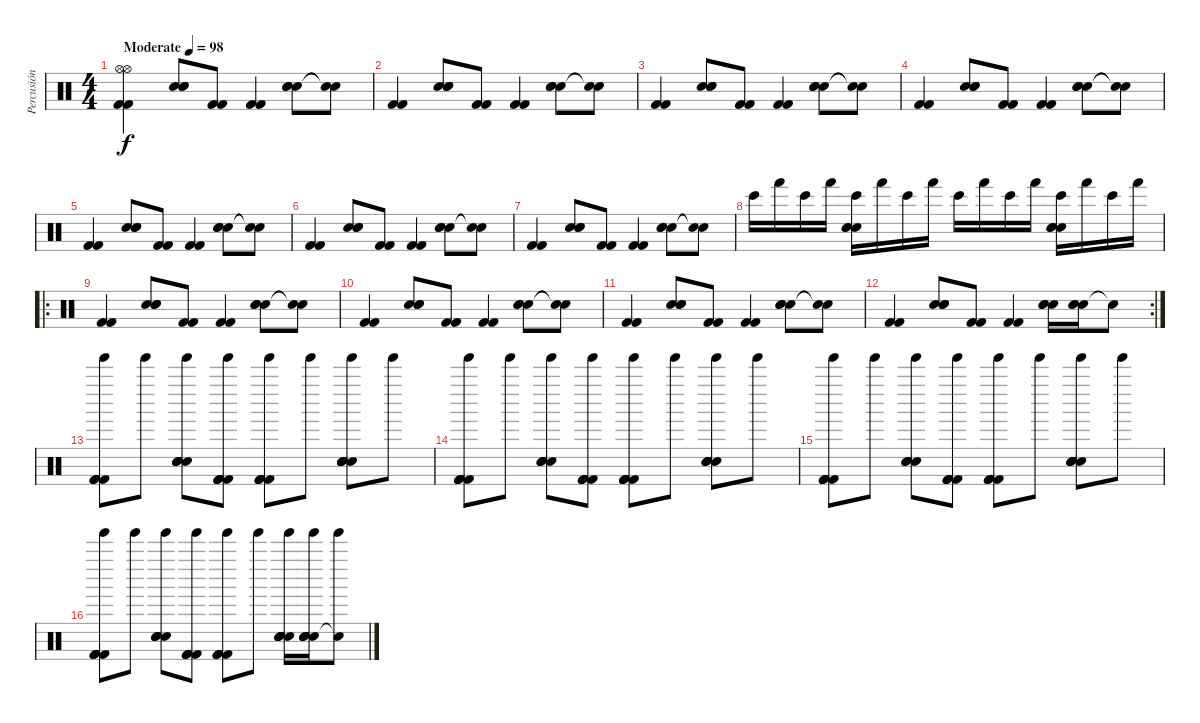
\track ("Percusión" "Percusión") {instrument percussion}
\staff {score}
\articulation defaults
\ts (4 4)
\tempo (98 "Moderate")
\clef neutral
\ks c
("Hi-Hat (open)" "Hi-Hat (open)" "Kick (hit) 2" "Kick (hit) 2").4{dy f} ("Electric Snare (hit)" "Electric Snare (hit)" "Electric Snare (hit)").8 ("Kick (hit) 2" "Kick (hit) 2").8 ("Kick (hit) 2" "Kick (hit) 2").4 ("Electric Snare (hit)" "Electric Snare (hit)" "Electric Snare (hit)").8 ("Snare (hit)"{t} "Snare (hit)"{t}).8 |
("Kick (hit) 2" "Kick (hit) 2").4 ("Electric Snare (hit)" "Electric Snare (hit)" "Electric Snare (hit)").8 ("Kick (hit) 2" "Kick (hit) 2").8 ("Kick (hit) 2" "Kick (hit) 2").4 ("Electric Snare (hit)" "Electric Snare (hit)" "Electric Snare (hit)").8 ("Snare (hit)"{t} "Snare (hit)"{t}).8 |
("Kick (hit) 2" "Kick (hit) 2").4 ("Electric Snare (hit)" "Electric Snare (hit)" "Electric Snare (hit)").8 ("Kick (hit) 2" "Kick (hit) 2").8 ("Kick (hit) 2" "Kick (hit) 2").4 ("Electric Snare (hit)" "Electric Snare (hit)" "Electric Snare (hit)").8 ("Snare (hit)"{t} "Snare (hit)"{t}).8 |
("Kick (hit) 2" "Kick (hit) 2").4 ("Electric Snare (hit)" "Electric Snare (hit)" "Electric Snare (hit)").8 ("Kick (hit) 2" "Kick (hit) 2").8 ("Kick (hit) 2" "Kick (hit) 2").4 ("Electric Snare (hit)" "Electric Snare (hit)" "Electric Snare (hit)").8 ("Snare (hit)"{t} "Snare (hit)"{t}).8 |
("Kick (hit) 2" "Kick (hit) 2").4 ("Electric Snare (hit)" "Electric Snare (hit)" "Electric Snare (hit)").8 ("Kick (hit) 2" "Kick (hit) 2").8 ("Kick (hit) 2" "Kick (hit) 2").4 ("Electric Snare (hit)" "Electric Snare (hit)" "Electric Snare (hit)").8 ("Snare (hit)"{t} "Snare (hit)"{t}).8 |
("Kick (hit) 2" "Kick (hit) 2").4 ("Electric Snare (hit)" "Electric Snare (hit)" "Electric Snare (hit)").8 ("Kick (hit) 2" "Kick (hit) 2").8 ("Kick (hit) 2" "Kick (hit) 2").4 ("Electric Snare (hit)" "Electric Snare (hit)" "Electric Snare (hit)").8 ("Snare (hit)"{t} "Snare (hit)"{t}).8 |
("Kick (hit) 2" "Kick (hit) 2").4 ("Electric Snare (hit)" "Electric Snare (hit)" "Electric Snare (hit)").8 ("Kick (hit) 2" "Kick (hit) 2").8 ("Kick (hit) 2" "Kick (hit) 2").4 ("Electric Snare (hit)" "Electric Snare (hit)" "Electric Snare (hit)").8 ("Snare (hit)"{t} "Snare (hit)"{t}).8 |
"Bongo High (hit)".16 "Hand (hit)".16 "Bongo High (hit)".16 "Hand (hit)".16 ("Bongo High (hit)" "Electric Snare (hit)" "Electric Snare (hit)" "Electric Snare (hit)").16 "Hand (hit)".16 "Bongo High (hit)".16 "Hand (hit)".16 "Bongo High (hit)".16 "Hand (hit)".16 "Bongo High (hit)".16 "Hand (hit)".16 ("Bongo High (hit)" "Electric Snare (hit)" "Electric Snare (hit)" "Electric Snare (hit)").16 "Hand (hit)".16 "Bongo High (hit)".16 "Hand (hit)".16 |
\ro
("Kick (hit) 2" "Kick (hit) 2").4 ("Electric Snare (hit)" "Electric Snare (hit)" "Electric Snare (hit)").8 ("Kick (hit) 2" "Kick (hit) 2").8 ("Kick (hit) 2" "Kick (hit) 2").4 ("Electric Snare (hit)" "Electric Snare (hit)" "Electric Snare (hit)").8 ("Snare (hit)"{t} "Snare (hit)"{t}).8 |
("Kick (hit) 2" "Kick (hit) 2").4 ("Electric Snare (hit)" "Electric Snare (hit)" "Electric Snare (hit)").8 ("Kick (hit) 2" "Kick (hit) 2").8 ("Kick (hit) 2" "Kick (hit) 2").4 ("Electric Snare (hit)" "Electric Snare (hit)" "Electric Snare (hit)").8 ("Snare (hit)"{t} "Snare (hit)"{t}).8 |
("Kick (hit) 2" "Kick (hit) 2").4 ("Electric Snare (hit)" "Electric Snare (hit)" "Electric Snare (hit)").8 ("Kick (hit) 2" "Kick (hit) 2").8 ("Kick (hit) 2" "Kick (hit) 2").4 ("Electric Snare (hit)" "Electric Snare (hit)" "Electric Snare (hit)").8 ("Snare (hit)"{t} "Snare (hit)"{t}).8 |
\rc 2
("Kick (hit) 2" "Kick (hit) 2").4 ("Electric Snare (hit)" "Electric Snare (hit)" "Electric Snare (hit)").8 ("Kick (hit) 2" "Kick (hit) 2").8 ("Kick (hit) 2" "Kick (hit) 2").4 ("Electric Snare (hit)" "Electric Snare (hit)" "Electric Snare (hit)").16 ("Electric Snare (hit)" "Electric Snare (hit)" "Electric Snare (hit)").16 "Snare (hit)"{t}.8 |
("Tinkle Bell (hit)" "Kick (hit) 2" "Kick (hit) 2" "Kick (hit) 2" "Kick (hit) 2").8 "Tinkle Bell (hit)".8 ("Tinkle Bell (hit)" "Electric Snare (hit)" "Electric Snare (hit)" "Electric Snare (hit)" "Electric Snare (hit)").8 ("Tinkle Bell (hit)" "Kick (hit) 2" "Kick (hit) 2" "Kick (hit) 2" "Kick (hit) 2").8 ("Tinkle Bell (hit)" "Kick (hit) 2" "Kick (hit) 2" "Kick (hit) 2" "Kick (hit) 2").8 "Tinkle Bell (hit)".8 ("Tinkle Bell (hit)" "Electric Snare (hit)" "Electric Snare (hit)" "Electric Snare (hit)" "Electric Snare (hit)" "Hand Clap (hit)").8 "Tinkle Bell (hit)".8 |
("Tinkle Bell (hit)" "Kick (hit) 2" "Kick (hit) 2" "Kick (hit) 2" "Kick (hit) 2").8 "Tinkle Bell (hit)".8 ("Tinkle Bell (hit)" "Electric Snare (hit)" "Electric Snare (hit)" "Electric Snare (hit)" "Electric Snare (hit)").8 ("Tinkle Bell (hit)" "Kick (hit) 2" "Kick (hit) 2" "Kick (hit) 2" "Kick (hit) 2").8 ("Tinkle Bell (hit)" "Kick (hit) 2" "Kick (hit) 2" "Kick (hit) 2" "Kick (hit) 2").8 "Tinkle Bell (hit)".8 ("Tinkle Bell (hit)" "Electric Snare (hit)" "Electric Snare (hit)" "Electric Snare (hit)" "Electric Snare (hit)" "Hand Clap (hit)").8 "Tinkle Bell (hit)".8 |
("Tinkle Bell (hit)" "Kick (hit) 2" "Kick (hit) 2" "Kick (hit) 2" "Kick (hit) 2").8 "Tinkle Bell (hit)".8 ("Tinkle Bell (hit)" "Electric Snare (hit)" "Electric Snare (hit)" "Electric Snare (hit)" "Electric Snare (hit)").8 ("Tinkle Bell (hit)" "Kick (hit) 2" "Kick (hit) 2" "Kick (hit) 2" "Kick (hit) 2").8 ("Tinkle Bell (hit)" "Kick (hit) 2" "Kick (hit) 2" "Kick (hit) 2" "Kick (hit) 2").8 "Tinkle Bell (hit)".8 ("Tinkle Bell (hit)" "Electric Snare (hit)" "Electric Snare (hit)" "Electric Snare (hit)" "Electric Snare (hit)" "Hand Clap (hit)").8 "Tinkle Bell (hit)".8 |
("Tinkle Bell (hit)" "Kick (hit) 2" "Kick (hit) 2" "Kick (hit) 2" "Kick (hit) 2").8 "Tinkle Bell (hit)".8 ("Tinkle Bell (hit)" "Electric Snare (hit)" "Electric Snare (hit)" "Electric Snare (hit)" "Electric Snare (hit)").8 ("Tinkle Bell (hit)" "Kick (hit) 2" "Kick (hit) 2" "Kick (hit) 2" "Kick (hit) 2").8 ("Tinkle Bell (hit)" "Kick (hit) 2" "Kick (hit) 2" "Kick (hit) 2" "Kick (hit) 2").8 "Tinkle Bell (hit)".8 ("Tinkle Bell (hit)" "Electric Snare (hit)" "Electric Snare (hit)" "Electric Snare (hit)" "Electric Snare (hit)" "Hand Clap (hit)").16 ("Tinkle Bell (hit)" "Electric Snare (hit)" "Electric Snare (hit)" "Electric Snare (hit)" "Electric Snare (hit)").16 ("Tinkle Bell (hit)" "Snare (hit)"{t}).8
